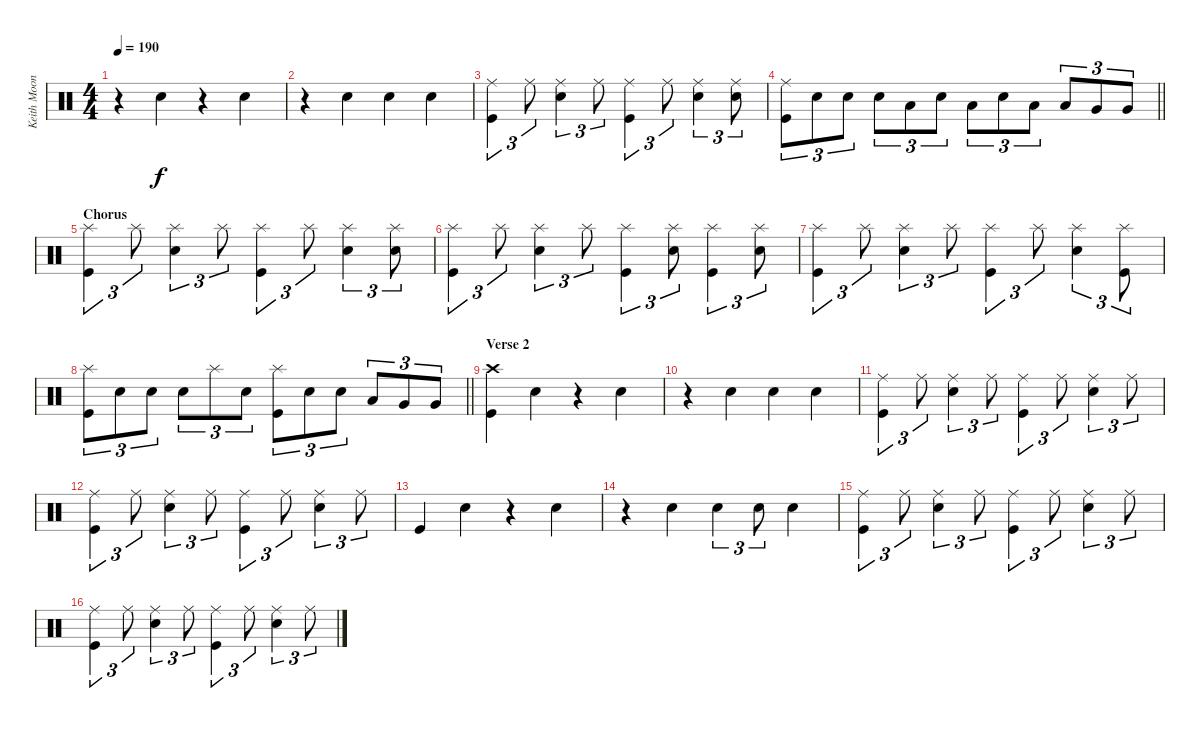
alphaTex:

\track ("Keith Moon" "Keith Moon") {instrument percussion}
\staff {score}
\articulation defaults
\ts (4 4)
\tempo 190
\clef neutral
\ks c
r.4{dy f} "Hand Clap (hit)".4 r.4 "Hand Clap (hit)".4 |
r.4 "Hand Clap (hit)".4 "Hand Clap (hit)".4 "Snare (hit) 2".4 |
("Ride (middle)" "Kick (hit)").4{tu (3 2)} "Ride (middle)".8{tu (3 2)} ("Ride (middle)" "Snare (hit) 2").4{tu (3 2)} "Ride (middle)".8{tu (3 2)} ("Ride (middle)" "Kick (hit)").4{tu (3 2)} "Ride (middle)".8{tu (3 2)} ("Ride (middle)" "Snare (hit) 2").4{tu (3 2)} ("Ride (middle)" "Snare (hit) 2").8{tu (3 2)} |
\barLineRight lightlight
("Ride (middle)" "Kick (hit)").8{tu (3 2)} "Snare (hit) 2".8{tu (3 2)} "Snare (hit) 2".8{tu (3 2)} "Snare (hit) 2".8{tu (3 2)} "Low Tom (hit)".8{tu (3 2)} "Snare (hit) 2".8{tu (3 2)} "Low Tom (hit)".8{tu (3 2)} "Snare (hit) 2".8{tu (3 2)} "Low Tom (hit)".8{tu (3 2)} "Low Tom (hit)".8{tu (3 2)} "Very Low Tom (hit)".8{tu (3 2)} "Very Low Tom (hit)".8{tu (3 2)} |
\section ("" "Chorus")
("Splash (hit)" "Kick (hit)").4{tu (3 2)} "Splash (hit)".8{tu (3 2)} ("Splash (hit)" "Snare (hit) 2").4{tu (3 2)} "Splash (hit)".8{tu (3 2)} ("Splash (hit)" "Kick (hit)").4{tu (3 2)} "Splash (hit)".8{tu (3 2)} ("Splash (hit)" "Snare (hit) 2").4{tu (3 2)} ("Splash (hit)" "Snare (hit) 2").8{tu (3 2)} |
("Splash (hit)" "Kick (hit)").4{tu (3 2)} "Splash (hit)".8{tu (3 2)} ("Splash (hit)" "Snare (hit) 2").4{tu (3 2)} "Splash (hit)".8{tu (3 2)} ("Splash (hit)" "Kick (hit)").4{tu (3 2)} ("Splash (hit)" "Snare (hit) 2").8{tu (3 2)} ("Splash (hit)" "Kick (hit)").4{tu (3 2)} ("Splash (hit)" "Snare (hit) 2").8{tu (3 2)} |
("Splash (hit)" "Kick (hit)").4{tu (3 2)} "Splash (hit)".8{tu (3 2)} ("Splash (hit)" "Snare (hit) 2").4{tu (3 2)} "Splash (hit)".8{tu (3 2)} ("Splash (hit)" "Kick (hit)").4{tu (3 2)} "Splash (hit)".8{tu (3 2)} ("Splash (hit)" "Snare (hit) 2").4{tu (3 2)} ("Splash (hit)" "Kick (hit)").8{tu (3 2)} |
\barLineRight lightlight
("Splash (hit)" "Kick (hit)").8{tu (3 2)} "Snare (hit) 2".8{tu (3 2)} "Snare (hit) 2".8{tu (3 2)} "Snare (hit) 2".8{tu (3 2)} "Splash (hit)".8{tu (3 2)} "Snare (hit) 2".8{tu (3 2)} ("Splash (hit)" "Kick (hit)").8{tu (3 2)} "Snare (hit) 2".8{tu (3 2)} "Snare (hit) 2".8{tu (3 2)} "Low Tom (hit)".8{tu (3 2)} "Very Low Tom (hit)".8{tu (3 2)} "Very Low Tom (hit)".8{tu (3 2)} |
\section ("" "Verse 2")
("Crash high (hit)" "Kick (hit)").4 "Hand Clap (hit)".4 r.4 "Hand Clap (hit)".4 |
r.4 "Hand Clap (hit)".4 "Hand Clap (hit)".4 "Snare (hit) 2".4 |
("Ride (middle)" "Kick (hit)").4{tu (3 2)} "Ride (middle)".8{tu (3 2)} ("Ride (middle)" "Snare (hit) 2").4{tu (3 2)} "Ride (middle)".8{tu (3 2)} ("Ride (middle)" "Kick (hit)").4{tu (3 2)} "Ride (middle)".8{tu (3 2)} ("Ride (middle)" "Snare (hit) 2").4{tu (3 2)} "Ride (middle)".8{tu (3 2)} |
("Ride (middle)" "Kick (hit)").4{tu (3 2)} "Ride (middle)".8{tu (3 2)} ("Ride (middle)" "Snare (hit) 2").4{tu (3 2)} "Ride (middle)".8{tu (3 2)} ("Ride (middle)" "Kick (hit)").4{tu (3 2)} "Ride (middle)".8{tu (3 2)} ("Ride (middle)" "Snare (hit) 2").4{tu (3 2)} "Ride (middle)".8{tu (3 2)} |
"Kick (hit)".4 "Hand Clap (hit)".4 r.4 "Hand Clap (hit)".4 |
r.4 "Hand Clap (hit)".4 "Hand Clap (hit)".4{tu (3 2)} "Snare (hit) 2".8{tu (3 2)} "Snare (hit) 2".4 |
("Ride (middle)" "Kick (hit)").4{tu (3 2)} "Ride (middle)".8{tu (3 2)} ("Ride (middle)" "Snare (hit) 2").4{tu (3 2)} "Ride (middle)".8{tu (3 2)} ("Ride (middle)" "Kick (hit)").4{tu (3 2)} "Ride (middle)".8{tu (3 2)} ("Ride (middle)" "Snare (hit) 2").4{tu (3 2)} "Ride (middle)".8{tu (3 2)} |
("Ride (middle)" "Kick (hit)").4{tu (3 2)} "Ride (middle)".8{tu (3 2)} ("Ride (middle)" "Snare (hit) 2").4{tu (3 2)} "Ride (middle)".8{tu (3 2)} ("Ride (middle)" "Kick (hit)").4{tu (3 2)} "Ride (middle)".8{tu (3 2)} ("Ride (middle)" "Snare (hit) 2").4{tu (3 2)} "Ride (middle)".8{tu (3 2)}
